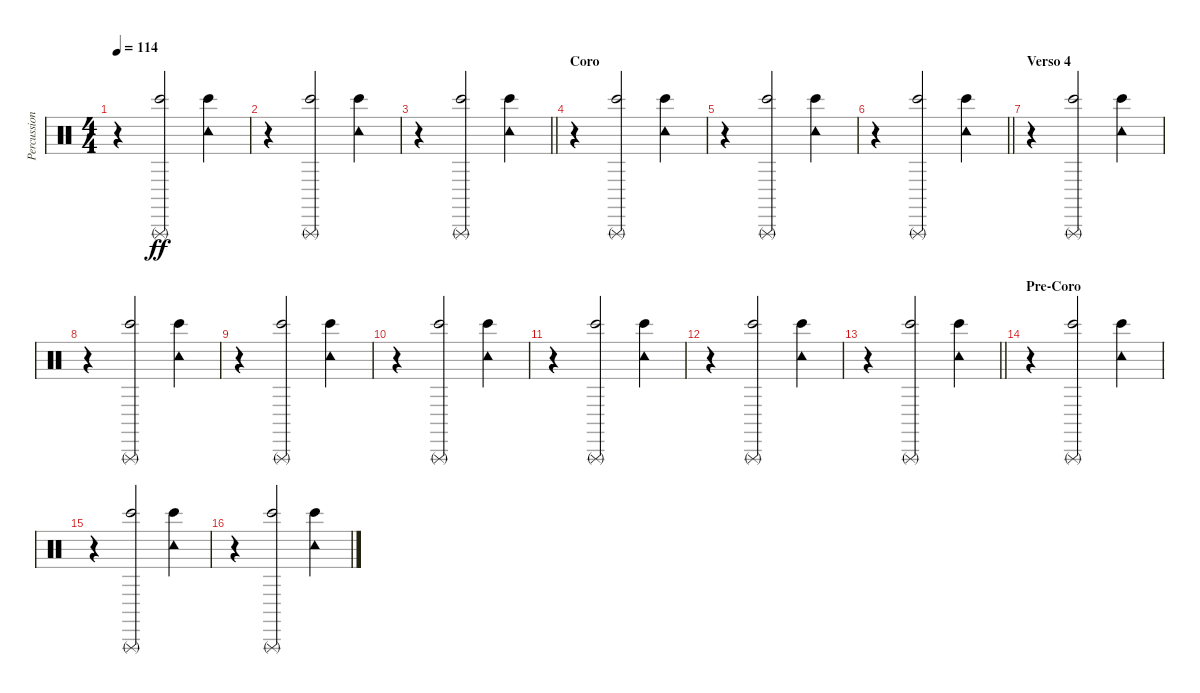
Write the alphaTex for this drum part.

\track ("Percussion" "Percussion") {instrument percussion}
\staff {score}
\articulation defaults
\ts (4 4)
\tempo 114
\clef neutral
\ks c
r.4{dy ff} ("Triangle (rnute)" "Bongo High (hit)").2 ("Tambourine (hit)" "Bongo High (hit)").4 |
r.4 ("Triangle (rnute)" "Bongo High (hit)").2 ("Tambourine (hit)" "Bongo High (hit)").4 |
\barLineRight lightlight
r.4 ("Triangle (rnute)" "Bongo High (hit)").2 ("Tambourine (hit)" "Bongo High (hit)").4 |
\section ("" "Coro")
r.4 ("Triangle (rnute)" "Bongo High (hit)").2 ("Tambourine (hit)" "Bongo High (hit)").4 |
r.4 ("Triangle (rnute)" "Bongo High (hit)").2 ("Tambourine (hit)" "Bongo High (hit)").4 |
\barLineRight lightlight
r.4 ("Triangle (rnute)" "Bongo High (hit)").2 ("Tambourine (hit)" "Bongo High (hit)").4 |
\section ("" "Verso 4")
r.4 ("Triangle (rnute)" "Bongo High (hit)").2 ("Tambourine (hit)" "Bongo High (hit)").4 |
r.4 ("Triangle (rnute)" "Bongo High (hit)").2 ("Tambourine (hit)" "Bongo High (hit)").4 |
r.4 ("Triangle (rnute)" "Bongo High (hit)").2 ("Tambourine (hit)" "Bongo High (hit)").4 |
r.4 ("Triangle (rnute)" "Bongo High (hit)").2 ("Tambourine (hit)" "Bongo High (hit)").4 |
r.4 ("Triangle (rnute)" "Bongo High (hit)").2 ("Tambourine (hit)" "Bongo High (hit)").4 |
r.4 ("Triangle (rnute)" "Bongo High (hit)").2 ("Tambourine (hit)" "Bongo High (hit)").4 |
\barLineRight lightlight
r.4 ("Triangle (rnute)" "Bongo High (hit)").2 ("Tambourine (hit)" "Bongo High (hit)").4 |
\section ("" "Pre-Coro")
r.4 ("Triangle (rnute)" "Bongo High (hit)").2 ("Tambourine (hit)" "Bongo High (hit)").4 |
r.4 ("Triangle (rnute)" "Bongo High (hit)").2 ("Tambourine (hit)" "Bongo High (hit)").4 |
r.4 ("Triangle (rnute)" "Bongo High (hit)").2 ("Tambourine (hit)" "Bongo High (hit)").4
